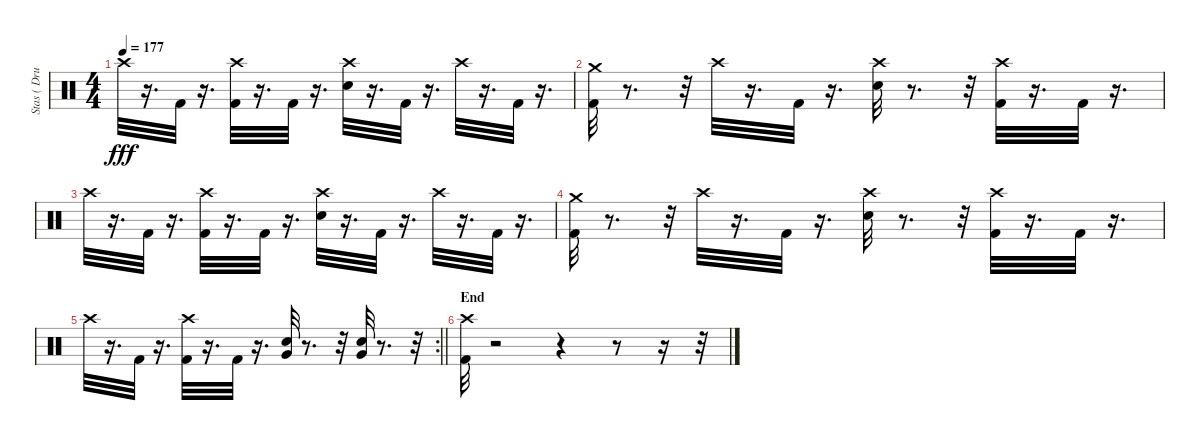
\track ("Stas ( Drums )" "Stas ( Dru") {instrument percussion}
\staff {score}
\articulation defaults
\ts (4 4)
\tempo 177
\clef neutral
\ks c "Crash high (hit)".32{dy fff}
r.16{d} "Kick (hit) 2".32 r.16{d} ("Kick (hit) 2" "Crash high (hit)").32 r.16{d} "Kick (hit) 2".32 r.16{d} ("Electric Snare (hit)" "Crash high (hit)").32 r.16{d} "Kick (hit) 2".32 r.16{d} "Crash high (hit)".32 r.16{d} "Kick (hit) 2".32 r.16{d} |
("Kick (hit) 2" "Crash medium (hit)").32 r.8{d} r.32 "Crash high (hit)".32 r.16{d} "Kick (hit) 2".32 r.16{d} ("Electric Snare (hit)" "Crash high (hit)").32 r.8{d} r.32 ("Kick (hit) 2" "Crash high (hit)").32 r.16{d} "Kick (hit) 2".32 r.16{d} |
"Crash high (hit)".32 r.16{d} "Kick (hit) 2".32 r.16{d} ("Kick (hit) 2" "Crash high (hit)").32 r.16{d} "Kick (hit) 2".32 r.16{d} ("Electric Snare (hit)" "Crash high (hit)").32 r.16{d} "Kick (hit) 2".32 r.16{d} "Crash high (hit)".32 r.16{d} "Kick (hit) 2".32 r.16{d} |
("Kick (hit) 2" "Crash medium (hit)").32 r.8{d} r.32 "Crash high (hit)".32 r.16{d} "Kick (hit) 2".32 r.16{d} ("Electric Snare (hit)" "Crash high (hit)").32 r.8{d} r.32 ("Kick (hit) 2" "Crash high (hit)").32 r.16{d} "Kick (hit) 2".32 r.16{d} |
\rc 2
\barLineRight lightlight "Crash high (hit)".32
r.16{d} "Kick (hit) 2".32 r.16{d} ("Kick (hit) 2" "Crash high (hit)").32 r.16{d} "Kick (hit) 2".32 r.16{d} ("Electric Snare (hit)" "Very Low Tom (hit)").32 r.8{d} r.32 ("Electric Snare (hit)" "Very Low Tom (hit)").32 r.8{d} r.32 |
\section ("" "End")
("Kick (hit) 2" "Crash high (hit)").32 r.2 r.4 r.8 r.16 r.32
